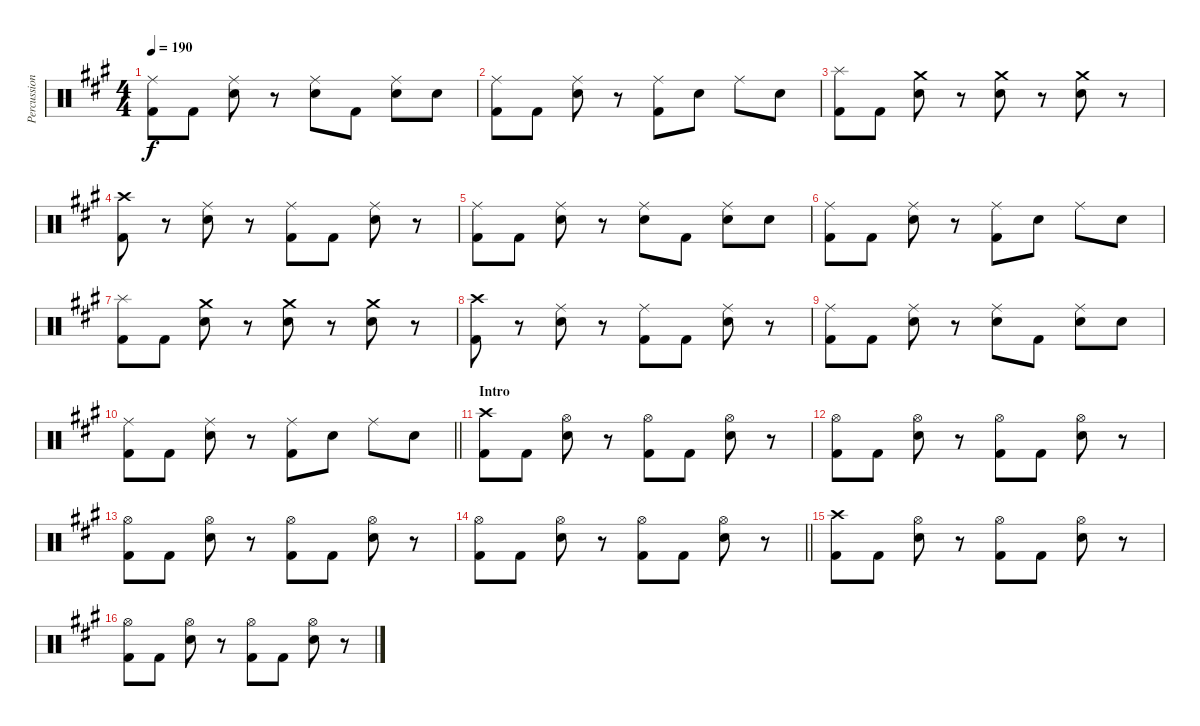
\track ("Percussion" "Percussion") {instrument percussion}
\staff {score}
\articulation defaults
\ts (4 4)
\tempo 190
\clef neutral
\ks a
("Ride (middle)" "Kick (hit) 2").8{dy f} "Kick (hit) 2".8 ("Ride (middle)" "Snare (hit) 2").8 r.8 ("Ride (middle)" "Snare (hit) 2").8 "Kick (hit) 2".8 ("Ride (middle)" "Snare (hit) 2").8 "Snare (hit) 2".8 |
("Ride (middle)" "Kick (hit) 2").8 "Kick (hit) 2".8 ("Ride (middle)" "Snare (hit) 2").8 r.8 ("Ride (middle)" "Kick (hit) 2").8 "Snare (hit) 2".8 "Ride (middle)".8 "Snare (hit) 2".8 |
("Splash (hit)" "Kick (hit) 2").8 "Kick (hit) 2".8 ("Crash medium (hit)" "Snare (hit) 2").8 r.8 ("Crash medium (hit)" "Snare (hit) 2").8 r.8 ("Crash medium (hit)" "Snare (hit) 2").8 r.8 |
("Crash high (hit)" "Kick (hit) 2").8 r.8 ("Ride (middle)" "Snare (hit) 2").8 r.8 ("Ride (middle)" "Kick (hit) 2").8 "Kick (hit) 2".8 ("Ride (middle)" "Snare (hit) 2").8 r.8 |
("Ride (middle)" "Kick (hit) 2").8 "Kick (hit) 2".8 ("Ride (middle)" "Snare (hit) 2").8 r.8 ("Ride (middle)" "Snare (hit) 2").8 "Kick (hit) 2".8 ("Ride (middle)" "Snare (hit) 2").8 "Snare (hit) 2".8 |
("Ride (middle)" "Kick (hit) 2").8 "Kick (hit) 2".8 ("Ride (middle)" "Snare (hit) 2").8 r.8 ("Ride (middle)" "Kick (hit) 2").8 "Snare (hit) 2".8 "Ride (middle)".8 "Snare (hit) 2".8 |
("Splash (hit)" "Kick (hit) 2").8 "Kick (hit) 2".8 ("Crash medium (hit)" "Snare (hit) 2").8 r.8 ("Crash medium (hit)" "Snare (hit) 2").8 r.8 ("Crash medium (hit)" "Snare (hit) 2").8 r.8 |
("Crash high (hit)" "Kick (hit) 2").8 r.8 ("Ride (middle)" "Snare (hit) 2").8 r.8 ("Ride (middle)" "Kick (hit) 2").8 "Kick (hit) 2".8 ("Ride (middle)" "Snare (hit) 2").8 r.8 |
("Ride (middle)" "Kick (hit) 2").8 "Kick (hit) 2".8 ("Ride (middle)" "Snare (hit) 2").8 r.8 ("Ride (middle)" "Snare (hit) 2").8 "Kick (hit) 2".8 ("Ride (middle)" "Snare (hit) 2").8 "Snare (hit) 2".8 |
\barLineRight lightlight
("Ride (middle)" "Kick (hit) 2").8 "Kick (hit) 2".8 ("Ride (middle)" "Snare (hit) 2").8 r.8 ("Ride (middle)" "Kick (hit) 2").8 "Snare (hit) 2".8 "Ride (middle)".8 "Snare (hit) 2".8 |
\section ("" "Intro")
("Crash high (hit)" "Kick (hit) 2").8 "Kick (hit) 2".8 ("Hi-Hat (open)" "Snare (hit) 2").8 r.8 ("Hi-Hat (open)" "Kick (hit) 2").8 "Kick (hit) 2".8 ("Hi-Hat (open)" "Snare (hit) 2").8 r.8 |
("Hi-Hat (open)" "Kick (hit) 2").8 "Kick (hit) 2".8 ("Hi-Hat (open)" "Snare (hit) 2").8 r.8 ("Hi-Hat (open)" "Kick (hit) 2").8 "Kick (hit) 2".8 ("Hi-Hat (open)" "Snare (hit) 2").8 r.8 |
("Hi-Hat (open)" "Kick (hit) 2").8 "Kick (hit) 2".8 ("Hi-Hat (open)" "Snare (hit) 2").8 r.8 ("Hi-Hat (open)" "Kick (hit) 2").8 "Kick (hit) 2".8 ("Hi-Hat (open)" "Snare (hit) 2").8 r.8 |
\barLineRight lightlight
("Hi-Hat (open)" "Kick (hit) 2").8 "Kick (hit) 2".8 ("Hi-Hat (open)" "Snare (hit) 2").8 r.8 ("Hi-Hat (open)" "Kick (hit) 2").8 "Kick (hit) 2".8 ("Hi-Hat (open)" "Snare (hit) 2").8 r.8 |
("Crash high (hit)" "Kick (hit) 2").8 "Kick (hit) 2".8 ("Hi-Hat (open)" "Snare (hit) 2").8 r.8 ("Hi-Hat (open)" "Kick (hit) 2").8 "Kick (hit) 2".8 ("Hi-Hat (open)" "Snare (hit) 2").8 r.8 |
("Hi-Hat (open)" "Kick (hit) 2").8 "Kick (hit) 2".8 ("Hi-Hat (open)" "Snare (hit) 2").8 r.8 ("Hi-Hat (open)" "Kick (hit) 2").8 "Kick (hit) 2".8 ("Hi-Hat (open)" "Snare (hit) 2").8 r.8
